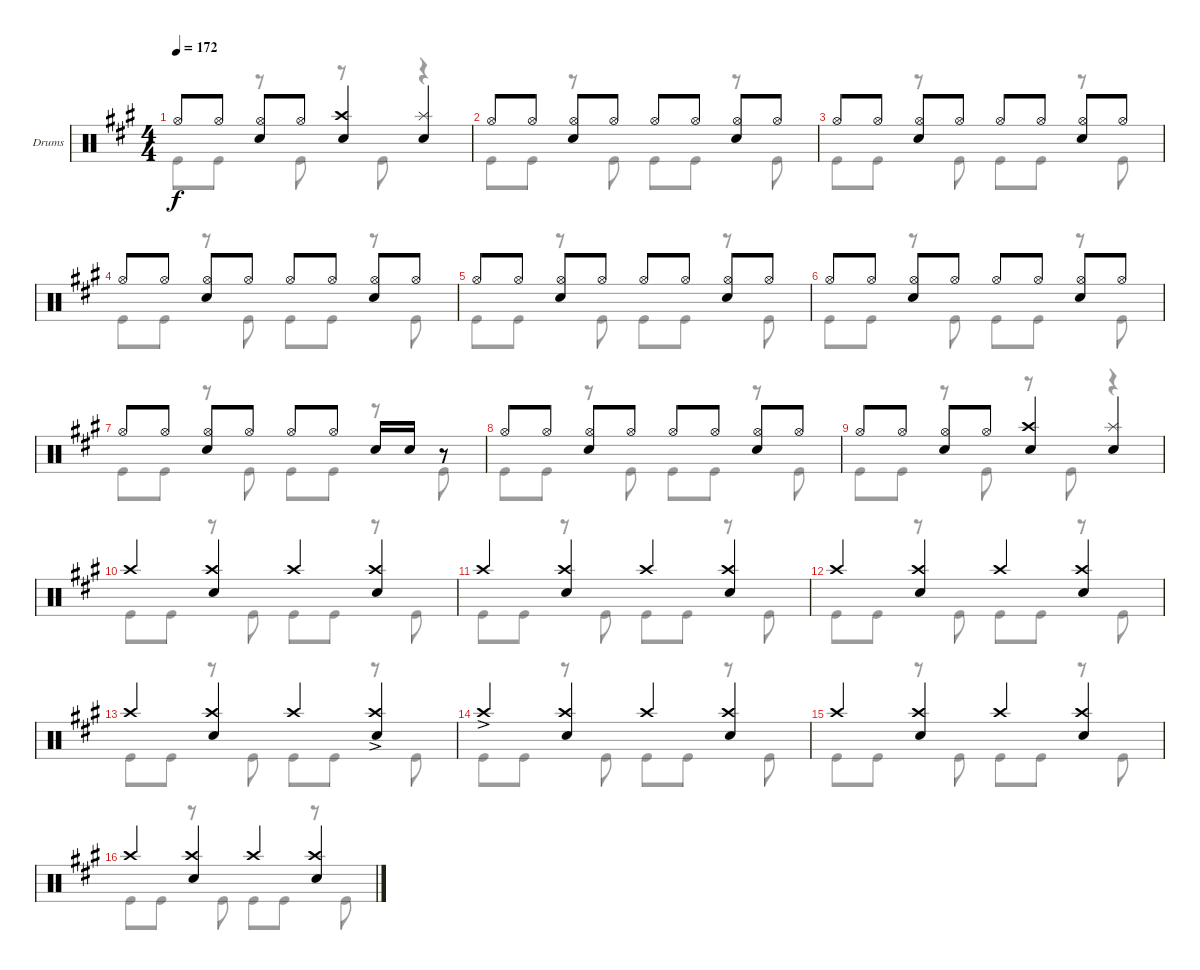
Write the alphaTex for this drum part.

\defaultSystemsLayout 4
\bracketExtendMode groupsimilarinstruments
\firstSystemTrackNameOrientation horizontal
\otherSystemsTrackNameOrientation horizontal
\track ("Taylor Hawkins" "Drums") {instrument percussion}
\staff {score}
\articulation defaults
\voice
\ts (4 4)
\tempo 172
\clef neutral
\ks a "Hi-Hat (open)".8{dy f} "Hi-Hat (open)".8
("Hi-Hat (open)" "Snare (hit) 2").8 "Hi-Hat (open)".8 ("Snare (hit) 2" "Crash high (hit)").4 ("Snare (hit) 2" "Splash (hit)").4 |
"Hi-Hat (open)".8 "Hi-Hat (open)".8 ("Hi-Hat (open)" "Snare (hit) 2").8 "Hi-Hat (open)".8 "Hi-Hat (open)".8 "Hi-Hat (open)".8 ("Hi-Hat (open)" "Snare (hit) 2").8 "Hi-Hat (open)".8 |
"Hi-Hat (open)".8 "Hi-Hat (open)".8 ("Hi-Hat (open)" "Snare (hit) 2").8 "Hi-Hat (open)".8 "Hi-Hat (open)".8 "Hi-Hat (open)".8 ("Hi-Hat (open)" "Snare (hit) 2").8 "Hi-Hat (open)".8 |
"Hi-Hat (open)".8 "Hi-Hat (open)".8 ("Hi-Hat (open)" "Snare (hit) 2").8 "Hi-Hat (open)".8 "Hi-Hat (open)".8 "Hi-Hat (open)".8 ("Hi-Hat (open)" "Snare (hit) 2").8 "Hi-Hat (open)".8 |
"Hi-Hat (open)".8 "Hi-Hat (open)".8 ("Hi-Hat (open)" "Snare (hit) 2").8 "Hi-Hat (open)".8 "Hi-Hat (open)".8 "Hi-Hat (open)".8 ("Snare (hit) 2" "Hi-Hat (open)").8 "Hi-Hat (open)".8 |
"Hi-Hat (open)".8 "Hi-Hat (open)".8 ("Hi-Hat (open)" "Snare (hit) 2").8 "Hi-Hat (open)".8 "Hi-Hat (open)".8 "Hi-Hat (open)".8 ("Hi-Hat (open)" "Snare (hit) 2").8 "Hi-Hat (open)".8 |
"Hi-Hat (open)".8 "Hi-Hat (open)".8 ("Hi-Hat (open)" "Snare (hit) 2").8 "Hi-Hat (open)".8 "Hi-Hat (open)".8 "Hi-Hat (open)".8 "Snare (hit) 2".16 "Snare (hit) 2".16 r.8 |
\scale
0.333333 "Hi-Hat (open)".8 "Hi-Hat (open)".8 ("Hi-Hat (open)" "Snare (hit) 2").8 "Hi-Hat (open)".8 "Hi-Hat (open)".8 "Hi-Hat (open)".8 ("Hi-Hat (open)" "Snare (hit) 2").8 "Hi-Hat (open)".8 |
\scale
0.333333 "Hi-Hat (open)".8 "Hi-Hat (open)".8 ("Hi-Hat (open)" "Snare (hit) 2").8 "Hi-Hat (open)".8 ("Snare (hit) 2" "Crash high (hit)").4 ("Snare (hit) 2" "Splash (hit)").4 |
\scale
0.333333 "Crash high (hit)".4 ("Snare (hit) 2" "Crash high (hit)").4 "Crash high (hit)".4 ("Snare (hit) 2" "Crash high (hit)").4 |
\scale
0.333333 "Crash high (hit)".4 ("Snare (hit) 2" "Crash high (hit)").4 "Crash high (hit)".4 ("Snare (hit) 2" "Crash high (hit)").4 |
\scale
0.333333 "Crash high (hit)".4 ("Snare (hit) 2" "Crash high (hit)").4 "Crash high (hit)".4 ("Snare (hit) 2" "Crash high (hit)").4 |
\scale
0.333333 "Crash high (hit)".4 ("Snare (hit) 2" "Crash high (hit)").4 "Crash high (hit)".4 ("Crash high (hit)"{ac} "Snare (hit) 2").4 |
\scale
0.333333 "Crash high (hit)"{ac}.4 ("Snare (hit) 2" "Crash high (hit)").4 "Crash high (hit)".4 ("Snare (hit) 2" "Crash high (hit)").4 |
\scale
0.333333 "Crash high (hit)".4 ("Snare (hit) 2" "Crash high (hit)").4 "Crash high (hit)".4 ("Snare (hit) 2" "Crash high (hit)").4 |
\scale
0.333333 "Crash high (hit)".4 ("Snare (hit) 2" "Crash high (hit)").4 "Crash high (hit)".4 ("Snare (hit) 2" "Crash high (hit)").4
\voice
\clef neutral
\ottava regular
\simile none
\ks a "Kick (hit)".8{dy f} "Kick (hit)".8
r.8 "Kick (hit)".8 r.8 "Kick (hit)".8 r.4 |
"Kick (hit)".8 "Kick (hit)".8 r.8 "Kick (hit)".8 "Kick (hit)".8 "Kick (hit)".8 r.8 "Kick (hit)".8 |
"Kick (hit)".8 "Kick (hit)".8 r.8 "Kick (hit)".8 "Kick (hit)".8 "Kick (hit)".8 r.8 "Kick (hit)".8 |
"Kick (hit)".8 "Kick (hit)".8 r.8 "Kick (hit)".8 "Kick (hit)".8 "Kick (hit)".8 r.8 "Kick (hit)".8 |
"Kick (hit)".8 "Kick (hit)".8 r.8 "Kick (hit)".8 "Kick (hit)".8 "Kick (hit)".8 r.8 "Kick (hit)".8 |
"Kick (hit)".8 "Kick (hit)".8 r.8 "Kick (hit)".8 "Kick (hit)".8 "Kick (hit)".8 r.8 "Kick (hit)".8 |
"Kick (hit)".8 "Kick (hit)".8 r.8 "Kick (hit)".8 "Kick (hit)".8 "Kick (hit)".8 r.8 "Kick (hit)".8 |
\scale
0.333333 "Kick (hit)".8 "Kick (hit)".8 r.8 "Kick (hit)".8 "Kick (hit)".8 "Kick (hit)".8 r.8 "Kick (hit)".8 |
\scale
0.333333 "Kick (hit)".8 "Kick (hit)".8 r.8 "Kick (hit)".8 r.8 "Kick (hit)".8 r.4 |
\scale
0.333333 "Kick (hit)".8 "Kick (hit)".8 r.8 "Kick (hit)".8 "Kick (hit)".8 "Kick (hit)".8 r.8 "Kick (hit)".8 |
\scale
0.333333 "Kick (hit)".8 "Kick (hit)".8 r.8 "Kick (hit)".8 "Kick (hit)".8 "Kick (hit)".8 r.8 "Kick (hit)".8 |
\scale
0.333333 "Kick (hit)".8 "Kick (hit)".8 r.8 "Kick (hit)".8 "Kick (hit)".8 "Kick (hit)".8 r.8 "Kick (hit)".8 |
\scale
0.333333 "Kick (hit)".8 "Kick (hit)".8 r.8 "Kick (hit)".8 "Kick (hit)".8 "Kick (hit)".8 r.8 "Kick (hit)".8 |
\scale
0.333333 "Kick (hit)".8 "Kick (hit)".8 r.8 "Kick (hit)".8 "Kick (hit)".8 "Kick (hit)".8 r.8 "Kick (hit)".8 |
\scale
0.333333 "Kick (hit)".8 "Kick (hit)".8 r.8 "Kick (hit)".8 "Kick (hit)".8 "Kick (hit)".8 r.8 "Kick (hit)".8 |
\scale
0.333333 "Kick (hit)".8 "Kick (hit)".8 r.8 "Kick (hit)".8 "Kick (hit)".8 "Kick (hit)".8 r.8 "Kick (hit)".8
